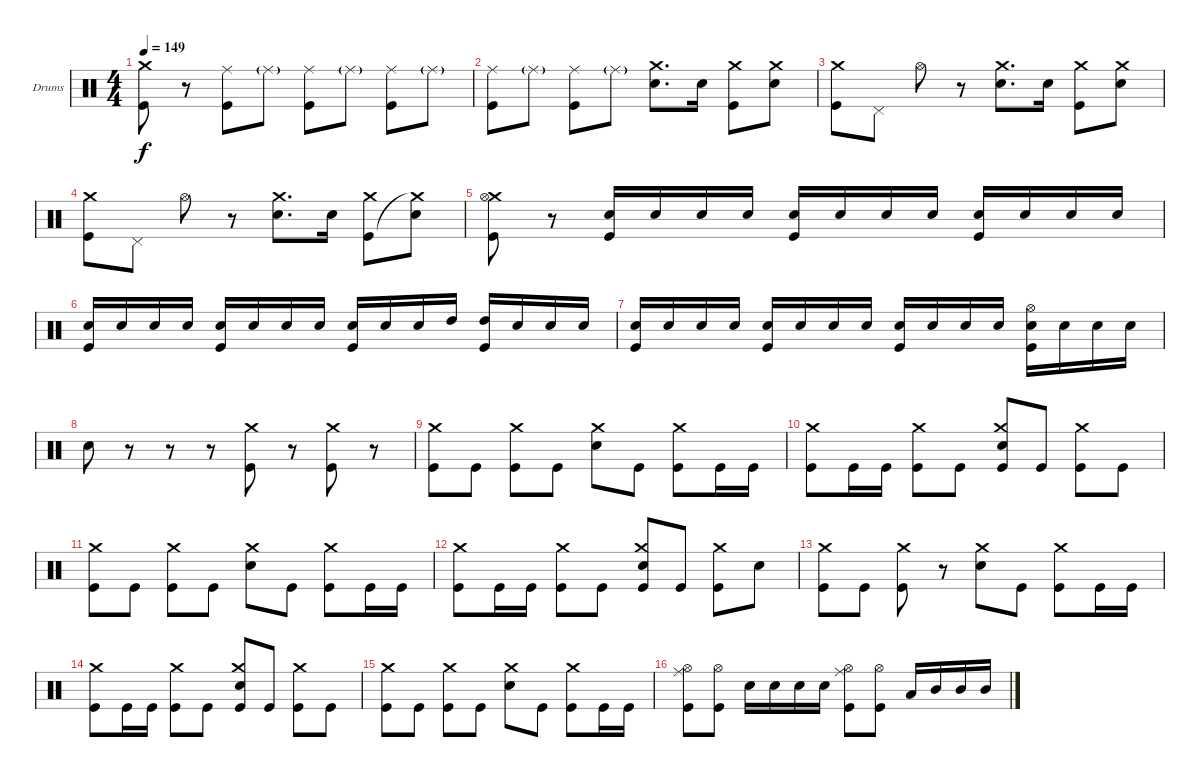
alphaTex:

\defaultSystemsLayout 4
\bracketExtendMode groupsimilarinstruments
\firstSystemTrackNameOrientation horizontal
\otherSystemsTrackNameOrientation horizontal
\track ("Moe Carlson" "Drums") {instrument percussion}
\staff {score}
\articulation defaults
\ts (4 4)
\tempo 149
\clef neutral
\ks c
("Kick (hit)" "Crash medium (hit)").8{dy f} r.8 ("Ride (middle)" "Kick (hit)").8 "Ride (middle)"{g}.8 ("Ride (middle)" "Kick (hit)").8 "Ride (middle)"{g}.8 ("Ride (middle)" "Kick (hit)").8 "Ride (middle)"{g}.8 |
("Ride (middle)" "Kick (hit)").8 "Ride (middle)"{g}.8 ("Ride (middle)" "Kick (hit)").8 "Ride (middle)"{g}.8 ("Crash medium (hit)" "Snare (hit) 2").8{d} "Snare (hit) 2".16 ("Kick (hit)" "Crash medium (hit)").8 ("Crash medium (hit)" "Snare (hit) 2").8 |
("Crash medium (hit)" "Kick (hit)").8 "Pedal Hi-Hat (hit)".8 "Hi-Hat (open)".8 r.8 ("Snare (hit) 2" "Crash medium (hit)").8{d} "Snare (hit) 2".16 ("Crash medium (hit)" "Kick (hit)").8 ("Crash medium (hit)" "Snare (hit) 2").8 |
("Kick (hit)" "Crash medium (hit)").8 "Pedal Hi-Hat (hit)".8 "Hi-Hat (open)".8 r.8 ("Crash medium (hit)" "Snare (hit) 2").8{d} "Snare (hit) 2".16 ("Crash medium (hit)" "Kick (hit)").8 ("Snare (hit) 2" "Crash medium (hit)"{t}).8 |
("Crash medium (hit)" "Hi-Hat (open)" "Kick (hit)").8 r.8 ("Kick (hit)" "Snare (hit) 2").16 "Snare (hit) 2".16 "Snare (hit) 2".16 "Snare (hit) 2".16 ("Snare (hit) 2" "Kick (hit)").16 "Snare (hit) 2".16 "Snare (hit) 2".16 "Snare (hit) 2".16 ("Snare (hit) 2" "Kick (hit)").16 "Snare (hit) 2".16 "Snare (hit) 2".16 "Snare (hit) 2".16 |
("Kick (hit)" "Snare (hit) 2").16 "Snare (hit) 2".16 "Snare (hit) 2".16 "Snare (hit) 2".16 ("Snare (hit) 2" "Kick (hit)").16 "Snare (hit) 2".16 "Snare (hit) 2".16 "Snare (hit) 2".16 ("Snare (hit) 2" "Kick (hit)").16 "Snare (hit) 2".16 "Snare (hit) 2".16 "High Tom (hit)".16 ("High Tom (hit)" "Kick (hit)").16 "Snare (hit) 2".16 "Snare (hit) 2".16 "Snare (hit) 2".16 |
("Snare (hit) 2" "Kick (hit)").16 "Snare (hit) 2".16 "Snare (hit) 2".16 "Snare (hit) 2".16 ("Snare (hit) 2" "Kick (hit)").16 "Snare (hit) 2".16 "Snare (hit) 2".16 "Snare (hit) 2".16 ("Snare (hit) 2" "Kick (hit)").16 "Snare (hit) 2".16 "Snare (hit) 2".16 "Snare (hit) 2".16 ("Snare (hit) 2" "Kick (hit)" "Hi-Hat (open)").16 "Snare (hit) 2".16 "Snare (hit) 2".16 "Snare (hit) 2".16 |
"Snare (hit) 2".8 r.8 r.8 r.8 ("Crash medium (hit)" "Kick (hit)").8 r.8 ("Kick (hit)" "Crash medium (hit)").8 r.8 |
("Kick (hit)" "Crash medium (hit)").8 "Kick (hit)".8 ("Kick (hit)" "Crash medium (hit)").8 "Kick (hit)".8 ("Snare (hit) 2" "Crash medium (hit)").8 "Kick (hit)".8 ("Crash medium (hit)" "Kick (hit)").8 "Kick (hit)".16 "Kick (hit)".16 |
("Kick (hit)" "Crash medium (hit)").8 "Kick (hit)".16 "Kick (hit)".16 ("Kick (hit)" "Crash medium (hit)").8 "Kick (hit)".8 ("Kick (hit)" "Snare (hit) 2" "Crash medium (hit)").8 "Kick (hit)".8 ("Kick (hit)" "Crash medium (hit)").8 "Kick (hit)".8 |
("Kick (hit)" "Crash medium (hit)").8 "Kick (hit)".8 ("Kick (hit)" "Crash medium (hit)").8 "Kick (hit)".8 ("Snare (hit) 2" "Crash medium (hit)").8 "Kick (hit)".8 ("Crash medium (hit)" "Kick (hit)").8 "Kick (hit)".16 "Kick (hit)".16 |
("Kick (hit)" "Crash medium (hit)").8 "Kick (hit)".16 "Kick (hit)".16 ("Kick (hit)" "Crash medium (hit)").8 "Kick (hit)".8 ("Kick (hit)" "Snare (hit) 2" "Crash medium (hit)").8 "Kick (hit)".8 ("Kick (hit)" "Crash medium (hit)").8 "Snare (hit) 2".8 |
("Kick (hit)" "Crash medium (hit)").8 "Kick (hit)".8 ("Kick (hit)" "Crash medium (hit)").8 r.8 ("Snare (hit) 2" "Crash medium (hit)").8 "Kick (hit)".8 ("Crash medium (hit)" "Kick (hit)").8 "Kick (hit)".16 "Kick (hit)".16 |
("Kick (hit)" "Crash medium (hit)").8 "Kick (hit)".16 "Kick (hit)".16 ("Kick (hit)" "Crash medium (hit)").8 "Kick (hit)".8 ("Kick (hit)" "Snare (hit) 2" "Crash medium (hit)").8 "Kick (hit)".8 ("Kick (hit)" "Crash medium (hit)").8 "Kick (hit)".8 |
("Kick (hit)" "Crash medium (hit)").8 "Kick (hit)".8 ("Kick (hit)" "Crash medium (hit)").8 "Kick (hit)".8 ("Snare (hit) 2" "Crash medium (hit)").8 "Kick (hit)".8 ("Crash medium (hit)" "Kick (hit)").8 "Kick (hit)".16 "Kick (hit)".16 |
("Kick (hit)" "Hi-Hat (open)" "Ride (middle)").8 ("Hi-Hat (open)" "Kick (hit)").8 "Snare (hit) 2".16 "Snare (hit) 2".16 "Snare (hit) 2".16 "Snare (hit) 2".16 ("Kick (hit)" "Hi-Hat (open)" "Ride (middle)").8 ("Hi-Hat (open)" "Kick (hit)").8 "Low Tom (hit)".16 "Mid Tom (hit)".16 "Mid Tom (hit)".16 "Mid Tom (hit)".16
